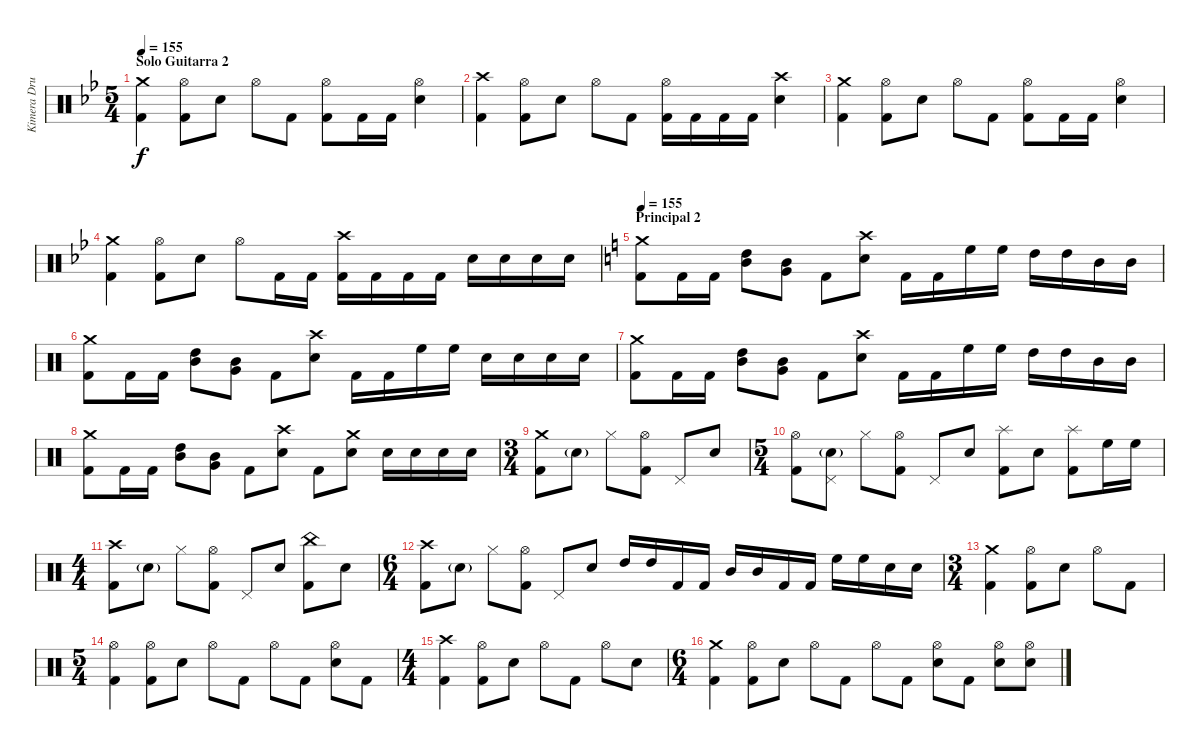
\track ("Kimera Drummer" "Kimera Dru") {instrument percussion}
\staff {score}
\articulation defaults
\ts (5 4)
\section ("" "Solo Guitarra 2")
\tempo 155
\clef neutral
\ks gminor
("Crash medium (hit)" "Kick (hit) 2").4{dy f} ("Hi-Hat (open)" "Kick (hit) 2").8 "Electric Snare (hit)".8 "Hi-Hat (open)".8 "Kick (hit) 2".8 ("Hi-Hat (open)" "Kick (hit) 2").8 "Kick (hit) 2".16 "Kick (hit) 2".16 ("Hi-Hat (open)" "Electric Snare (hit)").4 |
("Crash high (hit)" "Kick (hit) 2").4 ("Hi-Hat (open)" "Kick (hit) 2").8 "Electric Snare (hit)".8 "Hi-Hat (open)".8 "Kick (hit) 2".8 ("Hi-Hat (open)" "Kick (hit) 2").16 "Kick (hit) 2".16 "Kick (hit) 2".16 "Kick (hit) 2".16 ("Crash high (hit)" "Electric Snare (hit)").4 |
("Crash medium (hit)" "Kick (hit) 2").4 ("Hi-Hat (open)" "Kick (hit) 2").8 "Electric Snare (hit)".8 "Hi-Hat (open)".8 "Kick (hit) 2".8 ("Hi-Hat (open)" "Kick (hit) 2").8 "Kick (hit) 2".16 "Kick (hit) 2".16 ("Hi-Hat (open)" "Electric Snare (hit)").4 |
("Crash medium (hit)" "Kick (hit) 2").4 ("Hi-Hat (open)" "Kick (hit) 2").8 "Electric Snare (hit)".8 "Hi-Hat (open)".8 "Kick (hit) 2".16 "Kick (hit) 2".16 ("Crash high (hit)" "Kick (hit) 2").16 "Kick (hit) 2".16 "Kick (hit) 2".16 "Kick (hit) 2".16 "Electric Snare (hit)".16 "Electric Snare (hit)".16 "Electric Snare (hit)".16 "Electric Snare (hit)".16 |
\section ("" "Principal 2")
\tempo 155
\ks c
("Crash medium (hit)" "Kick (hit) 2").8 "Kick (hit) 2".16 "Kick (hit) 2".16 ("High Tom (hit)" "Mid Tom (hit)").8 ("Mid Tom (hit)" "Very Low Tom (hit)").8 "Kick (hit) 2".8 ("Crash high (hit)" "Electric Snare (hit)").8 "Kick (hit) 2".16 "Kick (hit) 2".16 "High Floor Tom (hit)".16 "High Floor Tom (hit)".16 "High Tom (hit)".16 "High Tom (hit)".16 "Mid Tom (hit)".16 "Mid Tom (hit)".16 |
("Crash medium (hit)" "Kick (hit) 2").8 "Kick (hit) 2".16 "Kick (hit) 2".16 ("High Tom (hit)" "Mid Tom (hit)").8 ("Mid Tom (hit)" "Very Low Tom (hit)").8 "Kick (hit) 2".8 ("Crash high (hit)" "Electric Snare (hit)").8 "Kick (hit) 2".16 "Kick (hit) 2".16 "High Floor Tom (hit)".16 "High Floor Tom (hit)".16 "Electric Snare (hit)".16 "Electric Snare (hit)".16 "Electric Snare (hit)".16 "Electric Snare (hit)".16 |
("Crash medium (hit)" "Kick (hit) 2").8 "Kick (hit) 2".16 "Kick (hit) 2".16 ("High Tom (hit)" "Mid Tom (hit)").8 ("Mid Tom (hit)" "Very Low Tom (hit)").8 "Kick (hit) 2".8 ("Crash high (hit)" "Electric Snare (hit)").8 "Kick (hit) 2".16 "Kick (hit) 2".16 "High Floor Tom (hit)".16 "High Floor Tom (hit)".16 "High Tom (hit)".16 "High Tom (hit)".16 "Mid Tom (hit)".16 "Mid Tom (hit)".16 |
("Crash medium (hit)" "Kick (hit) 2").8 "Kick (hit) 2".16 "Kick (hit) 2".16 ("High Tom (hit)" "Mid Tom (hit)").8 ("Mid Tom (hit)" "Very Low Tom (hit)").8 "Kick (hit) 2".8 ("Crash high (hit)" "Electric Snare (hit)").8 "Kick (hit) 2".8 ("Crash medium (hit)" "Electric Snare (hit)").8 "Electric Snare (hit)".16 "Electric Snare (hit)".16 "Electric Snare (hit)".16 "Electric Snare (hit)".16 |
\ts (3 4)
("Crash medium (hit)" "Kick (hit) 2").8 "Electric Snare (hit)"{g}.8 "Hi-Hat (closed)".8 ("Hi-Hat (open)" "Kick (hit) 2").8 "Pedal Hi-Hat (hit)".8 "Electric Snare (hit)".8 |
\ts (5 4)
("Hi-Hat (open)" "Kick (hit) 2").8 ("Electric Snare (hit)"{g} "Pedal Hi-Hat (hit)").8 "Hi-Hat (closed)".8 ("Hi-Hat (open)" "Kick (hit) 2").8 "Pedal Hi-Hat (hit)".8 "Electric Snare (hit)".8 ("Splash (hit)" "Kick (hit) 2").8 "Electric Snare (hit)".8 ("Splash (hit)" "Kick (hit) 2").8 "High Floor Tom (hit)".16 "High Floor Tom (hit)".16 |
\ts (4 4)
("Crash high (hit)" "Kick (hit) 2").8 "Electric Snare (hit)"{g}.8 "Hi-Hat (closed)".8 ("Hi-Hat (open)" "Kick (hit) 2").8 "Pedal Hi-Hat (hit)".8 "Electric Snare (hit)".8 ("China (hit)" "Kick (hit) 2").8 "Electric Snare (hit)".8 |
\ts (6 4)
("Crash high (hit)" "Kick (hit) 2").8 "Electric Snare (hit)"{g}.8 "Hi-Hat (closed)".8 ("Hi-Hat (open)" "Kick (hit) 2").8 "Pedal Hi-Hat (hit)".8 "Electric Snare (hit)".8 "High Tom (hit)".16 "High Tom (hit)".16 "Kick (hit) 2".16 "Kick (hit) 2".16 "Mid Tom (hit)".16 "Mid Tom (hit)".16 "Kick (hit) 2".16 "Kick (hit) 2".16 "High Floor Tom (hit)".16 "High Floor Tom (hit)".16 "Electric Snare (hit)".16 "Electric Snare (hit)".16 |
\ts (3 4)
("Crash medium (hit)" "Kick (hit) 2").4 ("Hi-Hat (open)" "Kick (hit) 2").8 "Electric Snare (hit)".8 "Hi-Hat (open)".8 "Kick (hit) 2".8 |
\ts (5 4)
("Hi-Hat (open)" "Kick (hit) 2").4 ("Hi-Hat (open)" "Kick (hit) 2").8 "Electric Snare (hit)".8 "Hi-Hat (open)".8 "Kick (hit) 2".8 "Hi-Hat (open)".8 "Kick (hit) 2".8 ("Hi-Hat (open)" "Electric Snare (hit)").8 "Kick (hit) 2".8 |
\ts (4 4)
("Crash high (hit)" "Kick (hit) 2").4 ("Hi-Hat (open)" "Kick (hit) 2").8 "Electric Snare (hit)".8 "Hi-Hat (open)".8 "Kick (hit) 2".8 "Hi-Hat (open)".8 "Electric Snare (hit)".8 |
\ts (6 4)
("Crash medium (hit)" "Kick (hit) 2").4 ("Hi-Hat (open)" "Kick (hit) 2").8 "Electric Snare (hit)".8 "Hi-Hat (open)".8 "Kick (hit) 2".8 "Hi-Hat (open)".8 "Kick (hit) 2".8 ("Hi-Hat (open)" "Electric Snare (hit)").8 "Kick (hit) 2".8 ("Hi-Hat (open)" "Electric Snare (hit)").8 ("Hi-Hat (open)" "Electric Snare (hit)").8
